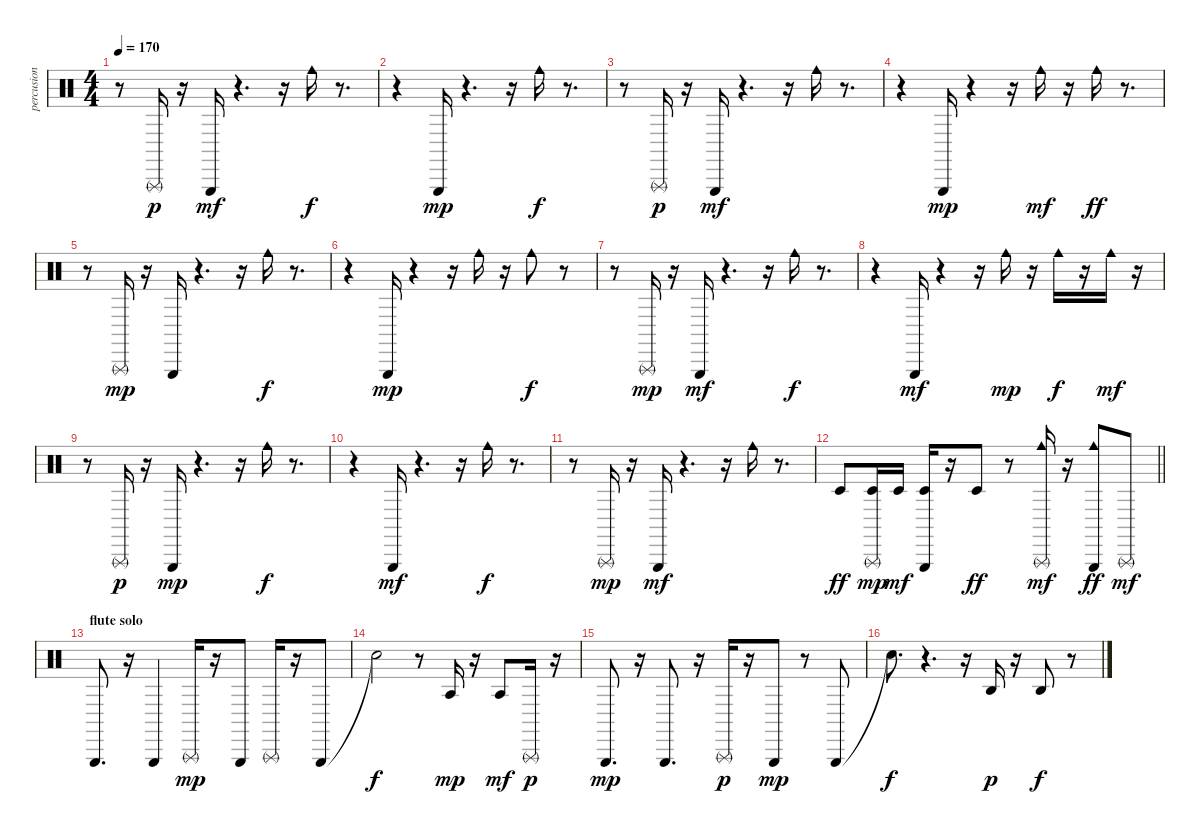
\track ("percusion" "percusion") {instrument percussion}
\staff {score}
\articulation defaults
\ts (4 4)
\tempo 170
\clef neutral
\ks c
r.8{dy mf} "Triangle (rnute)".16{dy p} r.16 "Triangle (hit)".16{dy mf} r.4{d} r.16 "Cowbell medium (hit)".16{dy f} r.8{d} |
r.4 "Triangle (hit)".16{dy mp} r.4{d} r.16 "Cowbell medium (hit)".16{dy f} r.8{d} |
r.8 "Triangle (rnute)".16{dy p} r.16 "Triangle (hit)".16{dy mf} r.4{d} r.16 "Cowbell medium (hit)".16 r.8{d} |
r.4 "Triangle (hit)".16{dy mp} r.4 r.16 "Cowbell medium (hit)".16{dy mf} r.16 "Cowbell medium (hit)".16{dy ff} r.8{d} |
r.8 "Triangle (rnute)".16{dy mp} r.16 "Triangle (hit)".16 r.4{d} r.16 "Cowbell medium (hit)".16{dy f} r.8{d} |
r.4 "Triangle (hit)".16{dy mp} r.4 r.16 "Cowbell medium (hit)".16 r.16 "Cowbell medium (hit)".8{dy f} r.8 |
r.8 "Triangle (rnute)".16{dy mp} r.16 "Triangle (hit)".16{dy mf} r.4{d} r.16 "Cowbell medium (hit)".16{dy f} r.8{d} |
r.4 "Triangle (hit)".16{dy mf} r.4 r.16 "Cowbell medium (hit)".16{dy mp} r.16 "Cowbell medium (hit)".16{dy f} r.16 "Cowbell medium (hit)".16{dy mf} r.16 |
r.8 "Triangle (rnute)".16{dy p} r.16 "Triangle (hit)".16{dy mp} r.4{d} r.16 "Cowbell medium (hit)".16{dy f} r.8{d} |
r.4 "Triangle (hit)".16{dy mf} r.4{d} r.16 "Cowbell medium (hit)".16{dy f} r.8{d} |
r.8 "Triangle (rnute)".16{dy mp} r.16 "Triangle (hit)".16{dy mf} r.4{d} r.16 "Cowbell medium (hit)".16 r.8{d} |
\barLineRight lightlight "Timbale low (hit)".8{dy ff}
("Triangle (rnute)" "Timbale low (hit)").16{dy mp} "Timbale low (hit)".16{dy mf} ("Triangle (hit)" "Timbale low (hit)").16 r.16 "Timbale low (hit)".8{dy ff} r.8 ("Triangle (rnute)" "Cowbell medium (hit)").16{dy mf} r.16 ("Triangle (hit)" "Cowbell medium (hit)").8{dy ff} "Triangle (rnute)".8{dy mf} |
\section ("" "flute solo")
"Triangle (hit)".8{d} r.16 "Triangle (hit)".4 "Triangle (rnute)".16{dy mp} r.16 "Triangle (hit)".8 "Triangle (rnute)".16 r.16 "Triangle (hit)".8 |
"Snare (hit)"{t}.2{dy f} r.8 "Agogo tow (hit)".16{dy mp} r.16 "Agogo tow (hit)".8{dy mf} "Triangle (rnute)".16{dy p} r.16 |
"Triangle (hit)".8{d dy mp} r.16 "Triangle (hit)".8{d} r.16 "Triangle (rnute)".16{dy p} r.16 "Triangle (hit)".8{dy mp} r.8 "Triangle (hit)".8 |
"Snare (hit)"{t}.8{d dy f} r.4{d} r.16 "Agogo high (hit)".16{dy p} r.16 "Agogo high (hit)".8{dy f} r.8
